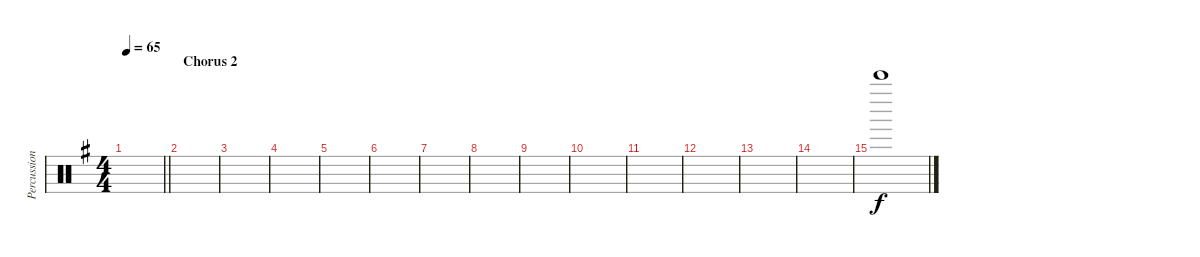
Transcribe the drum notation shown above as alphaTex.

\track ("Percussion" "Percussion") {instrument percussion}
\staff {score}
\articulation defaults
\ts (4 4)
\tempo 65
\clef neutral
\barLineRight lightlight
\ks g
|
\section ("" "Chorus 2")
|
|
|
|
|
|
|
|
|
|
|
|
|
"Bell Tree (hit)".1
